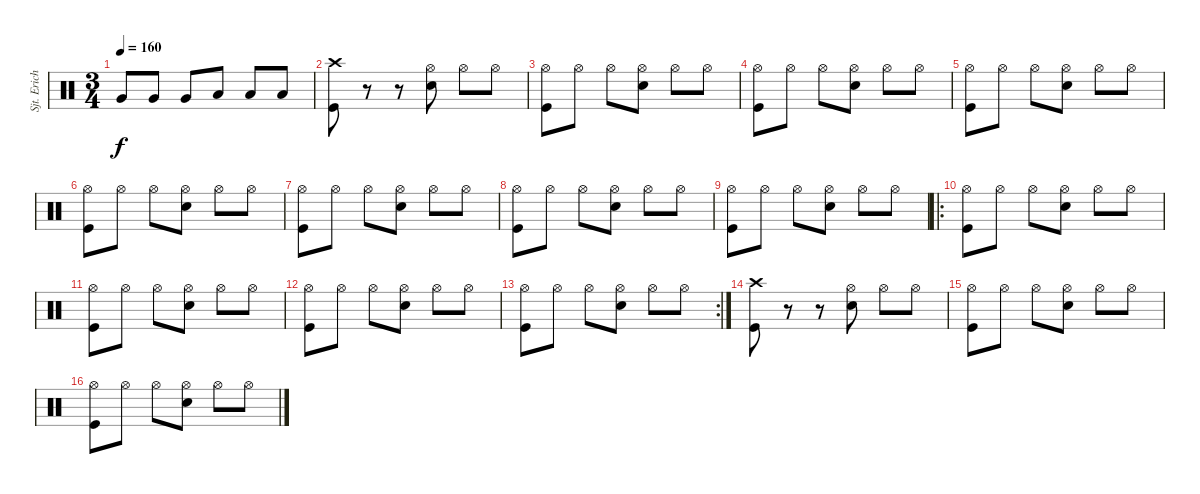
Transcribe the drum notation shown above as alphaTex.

\track ("Sjt. Erichsen" "Sjt. Erich") {instrument percussion}
\staff {score}
\articulation defaults
\ts (3 4)
\tempo 160
\clef neutral
\ks c "Very Low Tom (hit)".8{dy f} "Very Low Tom (hit)".8 "Very Low Tom (hit)".8 "Low Floor Tom (hit)".8 "Low Floor Tom (hit)".8 "Low Floor Tom (hit)".8
|
("Crash high (hit)" "Kick (hit)").8 r.8 r.8 ("Hi-Hat (open)" "Electric Snare (hit)").8 "Hi-Hat (open)".8 "Hi-Hat (open)".8 |
("Hi-Hat (open)" "Kick (hit)").8 "Hi-Hat (open)".8 "Hi-Hat (open)".8 ("Hi-Hat (open)" "Electric Snare (hit)").8 "Hi-Hat (open)".8 "Hi-Hat (open)".8 |
("Hi-Hat (open)" "Kick (hit)").8 "Hi-Hat (open)".8 "Hi-Hat (open)".8 ("Hi-Hat (open)" "Electric Snare (hit)").8 "Hi-Hat (open)".8 "Hi-Hat (open)".8 |
("Hi-Hat (open)" "Kick (hit)").8 "Hi-Hat (open)".8 "Hi-Hat (open)".8 ("Hi-Hat (open)" "Electric Snare (hit)").8 "Hi-Hat (open)".8 "Hi-Hat (open)".8 |
("Hi-Hat (open)" "Kick (hit)").8 "Hi-Hat (open)".8 "Hi-Hat (open)".8 ("Hi-Hat (open)" "Electric Snare (hit)").8 "Hi-Hat (open)".8 "Hi-Hat (open)".8 |
("Hi-Hat (open)" "Kick (hit)").8 "Hi-Hat (open)".8 "Hi-Hat (open)".8 ("Hi-Hat (open)" "Electric Snare (hit)").8 "Hi-Hat (open)".8 "Hi-Hat (open)".8 |
("Hi-Hat (open)" "Kick (hit)").8 "Hi-Hat (open)".8 "Hi-Hat (open)".8 ("Hi-Hat (open)" "Electric Snare (hit)").8 "Hi-Hat (open)".8 "Hi-Hat (open)".8 |
("Hi-Hat (open)" "Kick (hit)").8 "Hi-Hat (open)".8 "Hi-Hat (open)".8 ("Hi-Hat (open)" "Electric Snare (hit)").8 "Hi-Hat (open)".8 "Hi-Hat (open)".8 |
\ro
("Hi-Hat (open)" "Kick (hit)").8 "Hi-Hat (open)".8 "Hi-Hat (open)".8 ("Hi-Hat (open)" "Electric Snare (hit)").8 "Hi-Hat (open)".8 "Hi-Hat (open)".8 |
("Hi-Hat (open)" "Kick (hit)").8 "Hi-Hat (open)".8 "Hi-Hat (open)".8 ("Hi-Hat (open)" "Electric Snare (hit)").8 "Hi-Hat (open)".8 "Hi-Hat (open)".8 |
("Hi-Hat (open)" "Kick (hit)").8 "Hi-Hat (open)".8 "Hi-Hat (open)".8 ("Hi-Hat (open)" "Electric Snare (hit)").8 "Hi-Hat (open)".8 "Hi-Hat (open)".8 |
\rc 2
("Hi-Hat (open)" "Kick (hit)").8 "Hi-Hat (open)".8 "Hi-Hat (open)".8 ("Hi-Hat (open)" "Electric Snare (hit)").8 "Hi-Hat (open)".8 "Hi-Hat (open)".8 |
("Crash high (hit)" "Kick (hit)").8 r.8 r.8 ("Hi-Hat (open)" "Electric Snare (hit)").8 "Hi-Hat (open)".8 "Hi-Hat (open)".8 |
("Hi-Hat (open)" "Kick (hit)").8 "Hi-Hat (open)".8 "Hi-Hat (open)".8 ("Hi-Hat (open)" "Electric Snare (hit)").8 "Hi-Hat (open)".8 "Hi-Hat (open)".8 |
("Hi-Hat (open)" "Kick (hit)").8 "Hi-Hat (open)".8 "Hi-Hat (open)".8 ("Hi-Hat (open)" "Electric Snare (hit)").8 "Hi-Hat (open)".8 "Hi-Hat (open)".8
